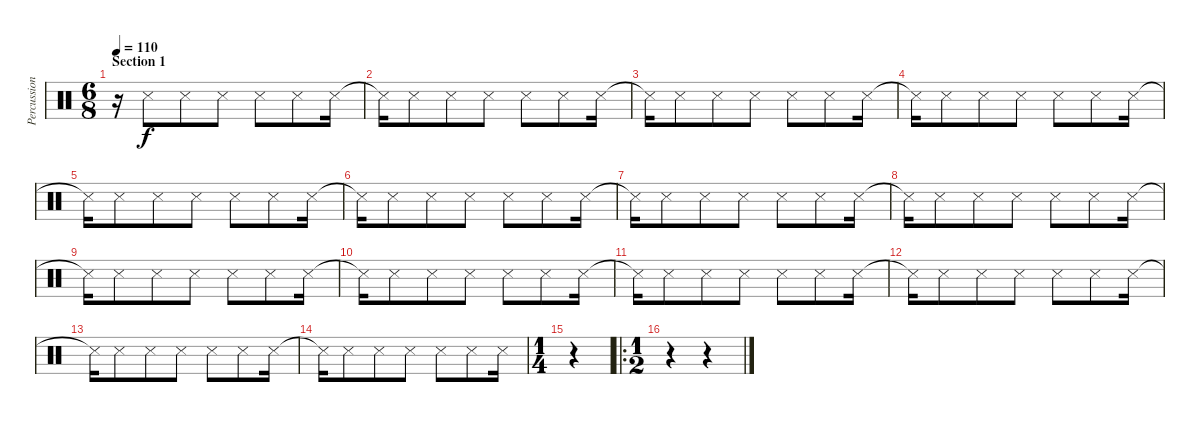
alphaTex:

\track ("Percussion" "Percussion") {instrument percussion}
\staff {score}
\articulation defaults
\ts (6 8)
\section ("" "Section 1")
\tempo 110
\clef neutral
\ks c
r.16{dy f} "Snare (side stick) 3".8 "Snare (side stick) 3".8 "Snare (side stick) 3".8 "Snare (side stick) 3".8 "Snare (side stick) 3".8 "Snare (side stick) 3".16 |
"Snare (side stick) 3"{t}.16 "Snare (side stick) 3".8 "Snare (side stick) 3".8 "Snare (side stick) 3".8 "Snare (side stick) 3".8 "Snare (side stick) 3".8 "Snare (side stick) 3".16 |
"Snare (side stick) 3"{t}.16 "Snare (side stick) 3".8 "Snare (side stick) 3".8 "Snare (side stick) 3".8 "Snare (side stick) 3".8 "Snare (side stick) 3".8 "Snare (side stick) 3".16 |
"Snare (side stick) 3"{t}.16 "Snare (side stick) 3".8 "Snare (side stick) 3".8 "Snare (side stick) 3".8 "Snare (side stick) 3".8 "Snare (side stick) 3".8 "Snare (side stick) 3".16 |
"Snare (side stick) 3"{t}.16 "Snare (side stick) 3".8 "Snare (side stick) 3".8 "Snare (side stick) 3".8 "Snare (side stick) 3".8 "Snare (side stick) 3".8 "Snare (side stick) 3".16 |
"Snare (side stick) 3"{t}.16 "Snare (side stick) 3".8 "Snare (side stick) 3".8 "Snare (side stick) 3".8 "Snare (side stick) 3".8 "Snare (side stick) 3".8 "Snare (side stick) 3".16 |
"Snare (side stick) 3"{t}.16 "Snare (side stick) 3".8 "Snare (side stick) 3".8 "Snare (side stick) 3".8 "Snare (side stick) 3".8 "Snare (side stick) 3".8 "Snare (side stick) 3".16 |
"Snare (side stick) 3"{t}.16 "Snare (side stick) 3".8 "Snare (side stick) 3".8 "Snare (side stick) 3".8 "Snare (side stick) 3".8 "Snare (side stick) 3".8 "Snare (side stick) 3".16 |
"Snare (side stick) 3"{t}.16 "Snare (side stick) 3".8 "Snare (side stick) 3".8 "Snare (side stick) 3".8 "Snare (side stick) 3".8 "Snare (side stick) 3".8 "Snare (side stick) 3".16 |
"Snare (side stick) 3"{t}.16 "Snare (side stick) 3".8 "Snare (side stick) 3".8 "Snare (side stick) 3".8 "Snare (side stick) 3".8 "Snare (side stick) 3".8 "Snare (side stick) 3".16 |
"Snare (side stick) 3"{t}.16 "Snare (side stick) 3".8 "Snare (side stick) 3".8 "Snare (side stick) 3".8 "Snare (side stick) 3".8 "Snare (side stick) 3".8 "Snare (side stick) 3".16 |
"Snare (side stick) 3"{t}.16 "Snare (side stick) 3".8 "Snare (side stick) 3".8 "Snare (side stick) 3".8 "Snare (side stick) 3".8 "Snare (side stick) 3".8 "Snare (side stick) 3".16 |
"Snare (side stick) 3"{t}.16 "Snare (side stick) 3".8 "Snare (side stick) 3".8 "Snare (side stick) 3".8 "Snare (side stick) 3".8 "Snare (side stick) 3".8 "Snare (side stick) 3".16 |
"Snare (side stick) 3"{t}.16 "Snare (side stick) 3".8 "Snare (side stick) 3".8 "Snare (side stick) 3".8 "Snare (side stick) 3".8 "Snare (side stick) 3".8 "Snare (side stick) 3".16 |
\ts (1 4)
r.4 |
\ro
\ts (1 2)
r.4 r.4
